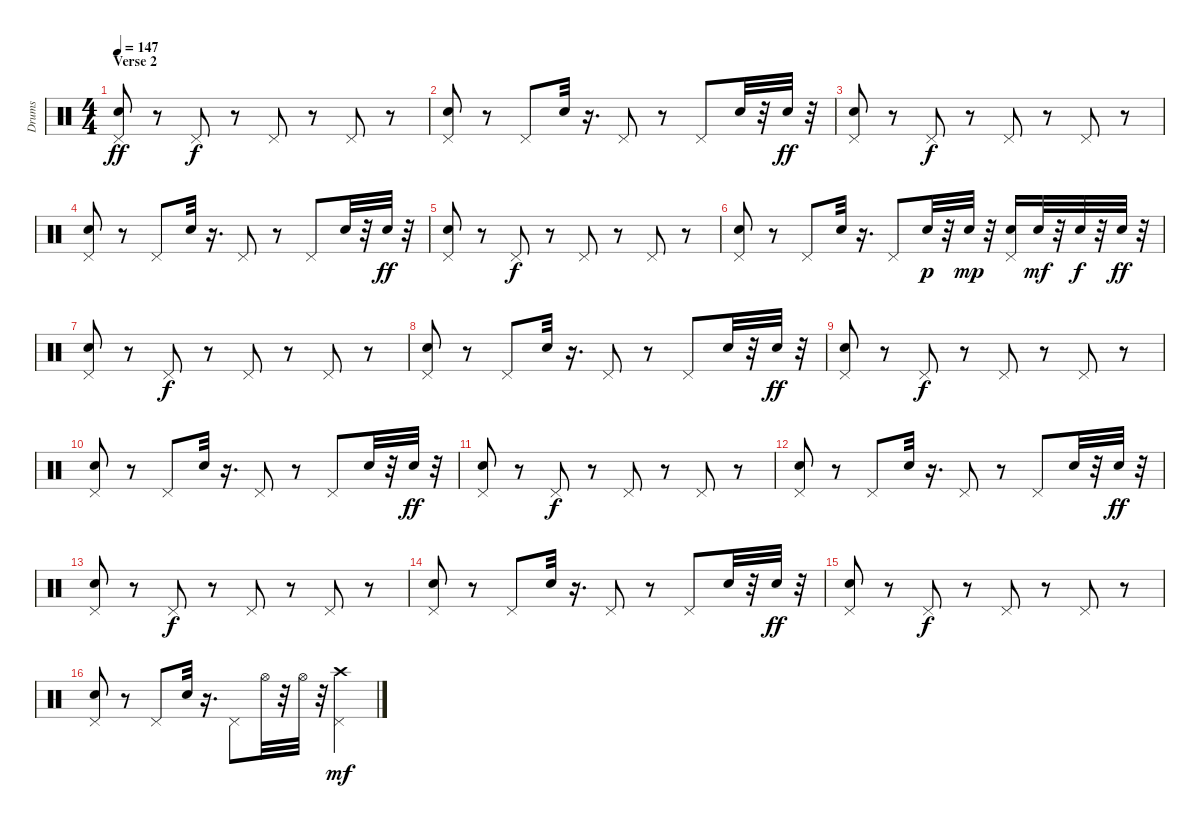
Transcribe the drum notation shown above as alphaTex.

\track ("Drums" "Drums") {instrument percussion}
\staff {score}
\articulation defaults
\ts (4 4)
\section ("" "Verse 2")
\tempo 147
\clef neutral
\ks c
("Pedal Hi-Hat (hit)" "Snare (hit) 2").8{dy ff} r.8 "Pedal Hi-Hat (hit)".8{dy f} r.8 "Pedal Hi-Hat (hit)".8 r.8 "Pedal Hi-Hat (hit)".8 r.8 |
("Pedal Hi-Hat (hit)" "Snare (hit) 2").8 r.8 "Pedal Hi-Hat (hit)".8 "Snare (hit) 2".32 r.16{d} "Pedal Hi-Hat (hit)".8 r.8 "Pedal Hi-Hat (hit)".8 "Snare (hit) 2".32 r.32 "Snare (hit) 2".32{dy ff} r.32 |
("Pedal Hi-Hat (hit)" "Snare (hit) 2").8 r.8 "Pedal Hi-Hat (hit)".8{dy f} r.8 "Pedal Hi-Hat (hit)".8 r.8 "Pedal Hi-Hat (hit)".8 r.8 |
("Pedal Hi-Hat (hit)" "Snare (hit) 2").8 r.8 "Pedal Hi-Hat (hit)".8 "Snare (hit) 2".32 r.16{d} "Pedal Hi-Hat (hit)".8 r.8 "Pedal Hi-Hat (hit)".8 "Snare (hit) 2".32 r.32 "Snare (hit) 2".32{dy ff} r.32 |
("Pedal Hi-Hat (hit)" "Snare (hit) 2").8 r.8 "Pedal Hi-Hat (hit)".8{dy f} r.8 "Pedal Hi-Hat (hit)".8 r.8 "Pedal Hi-Hat (hit)".8 r.8 |
("Pedal Hi-Hat (hit)" "Snare (hit) 2").8 r.8 "Pedal Hi-Hat (hit)".8 "Snare (hit) 2".32 r.16{d} "Pedal Hi-Hat (hit)".8 "Snare (hit) 2".32{dy p} r.32 "Snare (hit) 2".32{dy mp} r.32 ("Pedal Hi-Hat (hit)" "Snare (hit) 2").16 "Snare (hit) 2".32{dy mf} r.32 "Snare (hit) 2".32{dy f} r.32 "Snare (hit) 2".32{dy ff} r.32 |
("Pedal Hi-Hat (hit)" "Snare (hit) 2").8 r.8 "Pedal Hi-Hat (hit)".8{dy f} r.8 "Pedal Hi-Hat (hit)".8 r.8 "Pedal Hi-Hat (hit)".8 r.8 |
("Pedal Hi-Hat (hit)" "Snare (hit) 2").8 r.8 "Pedal Hi-Hat (hit)".8 "Snare (hit) 2".32 r.16{d} "Pedal Hi-Hat (hit)".8 r.8 "Pedal Hi-Hat (hit)".8 "Snare (hit) 2".32 r.32 "Snare (hit) 2".32{dy ff} r.32 |
("Pedal Hi-Hat (hit)" "Snare (hit) 2").8 r.8 "Pedal Hi-Hat (hit)".8{dy f} r.8 "Pedal Hi-Hat (hit)".8 r.8 "Pedal Hi-Hat (hit)".8 r.8 |
("Pedal Hi-Hat (hit)" "Snare (hit) 2").8 r.8 "Pedal Hi-Hat (hit)".8 "Snare (hit) 2".32 r.16{d} "Pedal Hi-Hat (hit)".8 r.8 "Pedal Hi-Hat (hit)".8 "Snare (hit) 2".32 r.32 "Snare (hit) 2".32{dy ff} r.32 |
("Pedal Hi-Hat (hit)" "Snare (hit) 2").8 r.8 "Pedal Hi-Hat (hit)".8{dy f} r.8 "Pedal Hi-Hat (hit)".8 r.8 "Pedal Hi-Hat (hit)".8 r.8 |
("Pedal Hi-Hat (hit)" "Snare (hit) 2").8 r.8 "Pedal Hi-Hat (hit)".8 "Snare (hit) 2".32 r.16{d} "Pedal Hi-Hat (hit)".8 r.8 "Pedal Hi-Hat (hit)".8 "Snare (hit) 2".32 r.32 "Snare (hit) 2".32{dy ff} r.32 |
("Pedal Hi-Hat (hit)" "Snare (hit) 2").8 r.8 "Pedal Hi-Hat (hit)".8{dy f} r.8 "Pedal Hi-Hat (hit)".8 r.8 "Pedal Hi-Hat (hit)".8 r.8 |
("Pedal Hi-Hat (hit)" "Snare (hit) 2").8 r.8 "Pedal Hi-Hat (hit)".8 "Snare (hit) 2".32 r.16{d} "Pedal Hi-Hat (hit)".8 r.8 "Pedal Hi-Hat (hit)".8 "Snare (hit) 2".32 r.32 "Snare (hit) 2".32{dy ff} r.32 |
("Pedal Hi-Hat (hit)" "Snare (hit) 2").8 r.8 "Pedal Hi-Hat (hit)".8{dy f} r.8 "Pedal Hi-Hat (hit)".8 r.8 "Pedal Hi-Hat (hit)".8 r.8 |
("Pedal Hi-Hat (hit)" "Snare (hit) 2").8 r.8 "Pedal Hi-Hat (hit)".8 "Snare (hit) 2".32 r.16{d} "Pedal Hi-Hat (hit)".8 "Hi-Hat (open)".32 r.32 "Hi-Hat (open)".32 r.32 ("Pedal Hi-Hat (hit)" "Crash high (hit)").4{dy mf}
